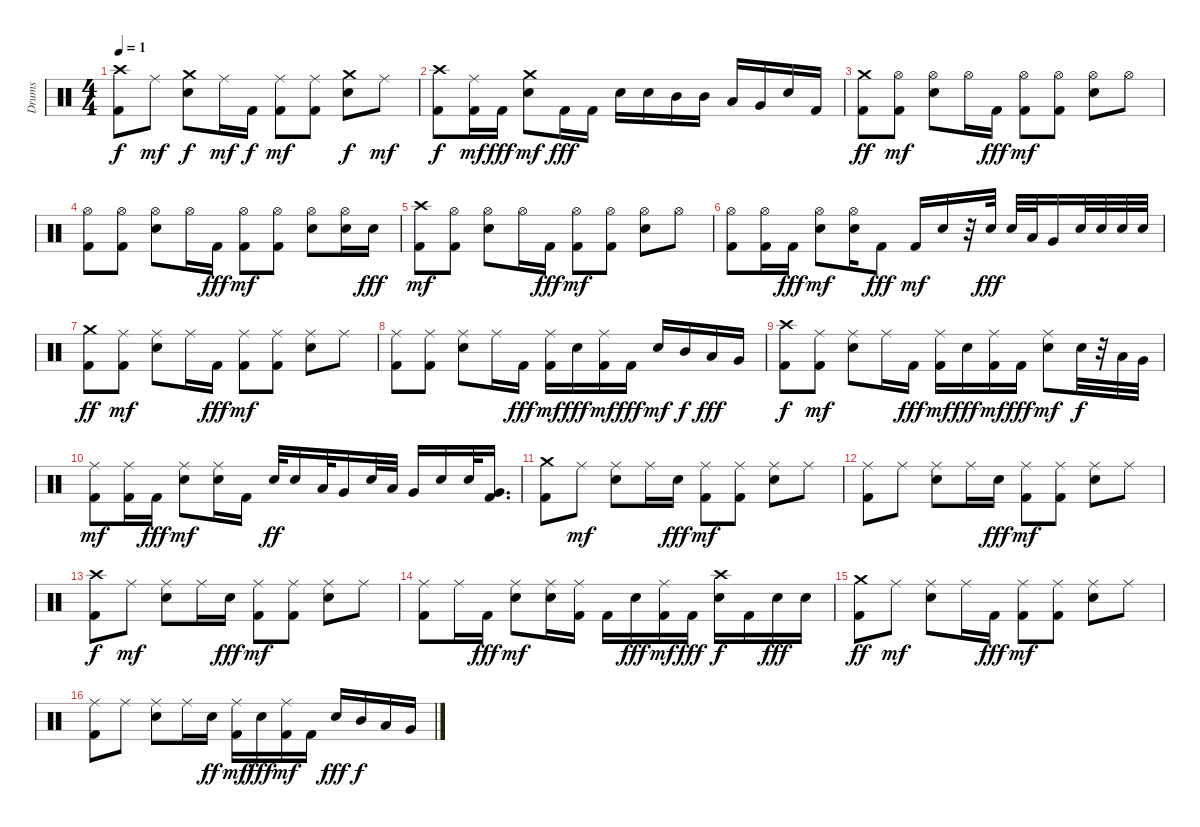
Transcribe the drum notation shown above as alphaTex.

\track ("Drums" "Drums") {instrument percussion}
\staff {score}
\articulation defaults
\ts (4 4)
\tempo 1
\clef neutral
\ks c
("Crash high (hit)" "Kick (hit) 2").8{dy f} "Ride (middle)".8{dy mf} ("Crash medium (hit)" "Snare (hit) 2").8{dy f} "Ride (middle)".16{dy mf} "Kick (hit) 2".16{dy f} ("Ride (middle)" "Kick (hit) 2").8{dy mf} ("Ride (middle)" "Kick (hit) 2").8 ("Crash medium (hit)" "Snare (hit) 2").8{dy f} "Ride (middle)".8{dy mf} |
("Crash high (hit)" "Kick (hit) 2").8{dy f} ("Ride (middle)" "Kick (hit) 2").16{dy mf} "Kick (hit) 2".16{dy fff} ("Crash medium (hit)" "Snare (hit) 2").8{dy mf} "Kick (hit) 2".16{dy fff} "Kick (hit) 2".16 "Snare (hit) 2".16 "Snare (hit) 2".16 "Mid Tom (hit)".16 "Mid Tom (hit)".16 "Low Tom (hit)".16 "Very Low Tom (hit)".16 "Snare (hit) 2".16 "Kick (hit) 2".16 |
("Crash medium (hit)" "Kick (hit) 2").8{dy ff} ("Hi-Hat (open)" "Kick (hit) 2").8{dy mf} ("Hi-Hat (open)" "Snare (hit) 2").8 "Hi-Hat (open)".16 "Kick (hit) 2".16{dy fff} ("Hi-Hat (open)" "Kick (hit) 2").8{dy mf} ("Hi-Hat (open)" "Kick (hit) 2").8 ("Hi-Hat (open)" "Snare (hit) 2").8 "Hi-Hat (open)".8 |
("Hi-Hat (open)" "Kick (hit) 2").8 ("Hi-Hat (open)" "Kick (hit) 2").8 ("Hi-Hat (open)" "Snare (hit) 2").8 "Hi-Hat (open)".16 "Kick (hit) 2".16{dy fff} ("Hi-Hat (open)" "Kick (hit) 2").8{dy mf} ("Hi-Hat (open)" "Kick (hit) 2").8 ("Hi-Hat (open)" "Snare (hit) 2").8 ("Hi-Hat (open)" "Snare (hit) 2").16 "Snare (hit) 2".16{dy fff} |
("Crash high (hit)" "Kick (hit) 2").8{dy mf} ("Hi-Hat (open)" "Kick (hit) 2").8 ("Hi-Hat (open)" "Snare (hit) 2").8 "Hi-Hat (open)".16 "Kick (hit) 2".16{dy fff} ("Hi-Hat (open)" "Kick (hit) 2").8{dy mf} ("Hi-Hat (open)" "Kick (hit) 2").8 ("Hi-Hat (open)" "Snare (hit) 2").8 "Hi-Hat (open)".8 |
("Hi-Hat (open)" "Kick (hit) 2").8 ("Hi-Hat (open)" "Kick (hit) 2").16 "Kick (hit) 2".16{dy fff} ("Hi-Hat (open)" "Snare (hit) 2").8{dy mf} ("Hi-Hat (open)" "Snare (hit) 2").16 "Kick (hit) 2".8{dy fff} "Kick (hit) 2".16{dy mf} "Snare (hit) 2".16 r.32 "Snare (hit) 2".32{dy fff} "Snare (hit) 2".32 "Low Tom (hit)".32 "Very Low Tom (hit)".16 "Snare (hit) 2".32 "Snare (hit) 2".32 "Snare (hit) 2".32 "Snare (hit) 2".32 |
("Crash medium (hit)" "Kick (hit) 2").8{dy ff} ("Ride (middle)" "Kick (hit) 2").8{dy mf} ("Ride (middle)" "Snare (hit) 2").8 "Ride (middle)".16 "Kick (hit) 2".16{dy fff} ("Ride (middle)" "Kick (hit) 2").8{dy mf} ("Ride (middle)" "Kick (hit) 2").8 ("Ride (middle)" "Snare (hit) 2").8 "Ride (middle)".8 |
("Ride (middle)" "Kick (hit) 2").8 ("Ride (middle)" "Kick (hit) 2").8 ("Ride (middle)" "Snare (hit) 2").8 "Ride (middle)".16 "Kick (hit) 2".16{dy fff} ("Ride (middle)" "Kick (hit) 2").16{dy mf} "Snare (hit) 2".16{dy fff} ("Ride (middle)" "Kick (hit) 2").16{dy mf} "Kick (hit) 2".16{dy fff} "Snare (hit) 2".16{dy mf} "Mid Tom (hit)".16{dy f} "Low Tom (hit)".16{dy fff} "Very Low Tom (hit)".16 |
("Crash high (hit)" "Kick (hit) 2").8{dy f} ("Ride (middle)" "Kick (hit) 2").8{dy mf} ("Ride (middle)" "Snare (hit) 2").8 "Ride (middle)".16 "Kick (hit) 2".16{dy fff} ("Ride (middle)" "Kick (hit) 2").16{dy mf} "Snare (hit) 2".16{dy fff} ("Ride (middle)" "Kick (hit) 2").16{dy mf} "Kick (hit) 2".16{dy fff} ("Ride (middle)" "Snare (hit) 2").8{dy mf} "Snare (hit) 2".32{dy f} r.32 "Low Tom (hit)".32 "Very Low Tom (hit)".32 |
("Ride (middle)" "Kick (hit) 2").8{dy mf} ("Ride (middle)" "Kick (hit) 2").16 "Kick (hit) 2".16{dy fff} ("Ride (middle)" "Snare (hit) 2").8{dy mf} ("Ride (middle)" "Snare (hit) 2").16 "Kick (hit) 2".16 "Snare (hit) 2".32{dy ff} "Snare (hit) 2".16 "Low Tom (hit)".32 "Very Low Tom (hit)".16 "Snare (hit) 2".32 "Low Tom (hit)".32 "Very Low Tom (hit)".16 "Snare (hit) 2".16 "Snare (hit) 2".32 ("Very Low Tom (hit)" "Kick (hit) 2").16{d} |
("Crash medium (hit)" "Kick (hit) 2").8 "Ride (middle)".8{dy mf} ("Ride (middle)" "Snare (hit) 2").8 "Ride (middle)".16 "Snare (hit) 2".16{dy fff} ("Ride (middle)" "Kick (hit) 2").8{dy mf} ("Ride (middle)" "Kick (hit) 2").8 ("Ride (middle)" "Snare (hit) 2").8 "Ride (middle)".8 |
("Ride (middle)" "Kick (hit) 2").8 "Ride (middle)".8 ("Ride (middle)" "Snare (hit) 2").8 "Ride (middle)".16 "Snare (hit) 2".16{dy fff} ("Ride (middle)" "Kick (hit) 2").8{dy mf} ("Ride (middle)" "Kick (hit) 2").8 ("Ride (middle)" "Snare (hit) 2").8 "Ride (middle)".8 |
("Crash high (hit)" "Kick (hit) 2").8{dy f} "Ride (middle)".8{dy mf} ("Ride (middle)" "Snare (hit) 2").8 "Ride (middle)".16 "Snare (hit) 2".16{dy fff} ("Ride (middle)" "Kick (hit) 2").8{dy mf} ("Ride (middle)" "Kick (hit) 2").8 ("Ride (middle)" "Snare (hit) 2").8 "Ride (middle)".8 |
("Ride (middle)" "Kick (hit) 2").8 "Ride (middle)".16 "Kick (hit) 2".16{dy fff} ("Ride (middle)" "Snare (hit) 2").8{dy mf} ("Ride (middle)" "Snare (hit) 2").16 ("Ride (middle)" "Kick (hit) 2").16 "Kick (hit) 2".16 "Snare (hit) 2".16{dy fff} ("Ride (middle)" "Kick (hit) 2").16{dy mf} "Kick (hit) 2".16{dy fff} ("Crash high (hit)" "Snare (hit) 2").16{dy f} "Kick (hit) 2".16 "Snare (hit) 2".16{dy fff} "Snare (hit) 2".16 |
("Crash medium (hit)" "Kick (hit) 2").8{dy ff} "Ride (middle)".8{dy mf} ("Ride (middle)" "Snare (hit) 2").8 "Ride (middle)".16 "Kick (hit) 2".16{dy fff} ("Ride (middle)" "Kick (hit) 2").8{dy mf} ("Ride (middle)" "Kick (hit) 2").8 ("Ride (middle)" "Snare (hit) 2").8 "Ride (middle)".8 |
("Ride (middle)" "Kick (hit) 2").8 "Ride (middle)".8 ("Ride (middle)" "Snare (hit) 2").8 "Ride (middle)".16 "Snare (hit) 2".16{dy ff} ("Ride (middle)" "Kick (hit) 2").16{dy mf} "Snare (hit) 2".16{dy fff} ("Ride (middle)" "Kick (hit) 2").16{dy mf} "Kick (hit) 2".16 "Snare (hit) 2".16{dy fff} "Mid Tom (hit)".16{dy f} "Low Tom (hit)".16 "Very Low Tom (hit)".16
